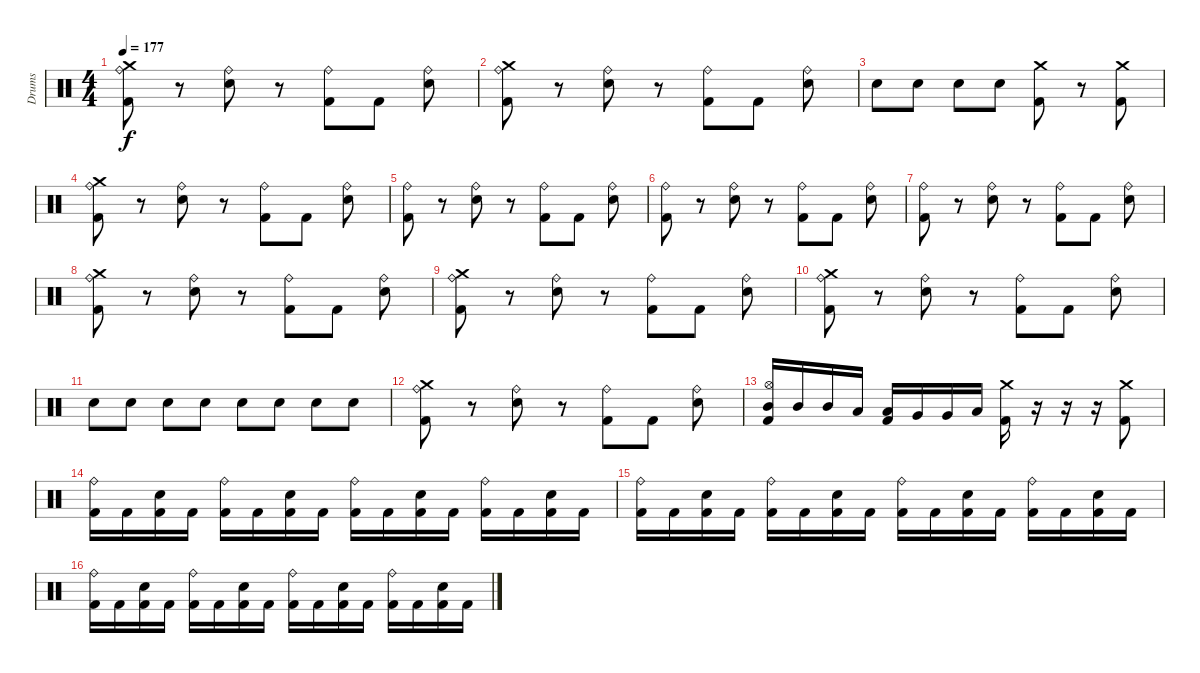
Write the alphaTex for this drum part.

\track ("Drums" "Drums") {instrument percussion}
\staff {score}
\articulation defaults
\ts (4 4)
\tempo 177
\clef neutral
\ks c
("Ride (bell)" "Crash medium (hit)" "Kick (hit) 2").8{dy f} r.8 ("Ride (bell)" "Snare (hit) 2").8 r.8 ("Ride (bell)" "Kick (hit) 2").8 "Kick (hit) 2".8 ("Ride (bell)" "Snare (hit) 2").8 |
("Ride (bell)" "Crash medium (hit)" "Kick (hit) 2").8 r.8 ("Ride (bell)" "Snare (hit) 2").8 r.8 ("Ride (bell)" "Kick (hit) 2").8 "Kick (hit) 2".8 ("Ride (bell)" "Snare (hit) 2").8 |
"Snare (hit) 2".8 "Snare (hit) 2".8 "Snare (hit) 2".8 "Snare (hit) 2".8 ("Crash medium (hit)" "Kick (hit) 2").8 r.8 ("Crash medium (hit)" "Kick (hit) 2").8 |
("Ride (bell)" "Crash medium (hit)" "Kick (hit) 2").8 r.8 ("Ride (bell)" "Snare (hit) 2").8 r.8 ("Ride (bell)" "Kick (hit) 2").8 "Kick (hit) 2".8 ("Ride (bell)" "Snare (hit) 2").8 |
("Ride (bell)" "Kick (hit) 2").8 r.8 ("Ride (bell)" "Snare (hit) 2").8 r.8 ("Ride (bell)" "Kick (hit) 2").8 "Kick (hit) 2".8 ("Ride (bell)" "Snare (hit) 2").8 |
("Ride (bell)" "Kick (hit) 2").8 r.8 ("Ride (bell)" "Snare (hit) 2").8 r.8 ("Ride (bell)" "Kick (hit) 2").8 "Kick (hit) 2".8 ("Ride (bell)" "Snare (hit) 2").8 |
("Ride (bell)" "Kick (hit) 2").8 r.8 ("Ride (bell)" "Snare (hit) 2").8 r.8 ("Ride (bell)" "Kick (hit) 2").8 "Kick (hit) 2".8 ("Ride (bell)" "Snare (hit) 2").8 |
("Ride (bell)" "Crash medium (hit)" "Kick (hit) 2").8 r.8 ("Ride (bell)" "Snare (hit) 2").8 r.8 ("Ride (bell)" "Kick (hit) 2").8 "Kick (hit) 2".8 ("Ride (bell)" "Snare (hit) 2").8 |
("Ride (bell)" "Crash medium (hit)" "Kick (hit) 2").8 r.8 ("Ride (bell)" "Snare (hit) 2").8 r.8 ("Ride (bell)" "Kick (hit) 2").8 "Kick (hit) 2".8 ("Ride (bell)" "Snare (hit) 2").8 |
("Ride (bell)" "Crash medium (hit)" "Kick (hit) 2").8 r.8 ("Ride (bell)" "Snare (hit) 2").8 r.8 ("Ride (bell)" "Kick (hit) 2").8 "Kick (hit) 2".8 ("Ride (bell)" "Snare (hit) 2").8 |
"Snare (hit) 2".8 "Snare (hit) 2".8 "Snare (hit) 2".8 "Snare (hit) 2".8 "Snare (hit) 2".8 "Snare (hit) 2".8 "Snare (hit) 2".8 "Snare (hit) 2".8 |
("Ride (bell)" "Crash medium (hit)" "Kick (hit) 2").8 r.8 ("Ride (bell)" "Snare (hit) 2").8 r.8 ("Ride (bell)" "Kick (hit) 2").8 "Kick (hit) 2".8 ("Ride (bell)" "Snare (hit) 2").8 |
("Hi-Hat (open)" "Mid Tom (hit)" "Kick (hit) 2").16 "Mid Tom (hit)".16 "Mid Tom (hit)".16 "Low Tom (hit)".16 ("Low Tom (hit)" "Kick (hit) 2").16 "Very Low Tom (hit)".16 "Very Low Tom (hit)".16 "Low Tom (hit)".16 ("Crash medium (hit)" "Kick (hit) 2").16 r.16 r.16 r.16 ("Crash medium (hit)" "Kick (hit) 2").8 |
("Ride (bell)" "Kick (hit) 2").16 "Kick (hit) 2".16 ("Snare (hit) 2" "Kick (hit) 2").16 "Kick (hit) 2".16 ("Ride (bell)" "Kick (hit) 2").16 "Kick (hit) 2".16 ("Snare (hit) 2" "Kick (hit) 2").16 "Kick (hit) 2".16 ("Ride (bell)" "Kick (hit) 2").16 "Kick (hit) 2".16 ("Snare (hit) 2" "Kick (hit) 2").16 "Kick (hit) 2".16 ("Ride (bell)" "Kick (hit) 2").16 "Kick (hit) 2".16 ("Snare (hit) 2" "Kick (hit) 2").16 "Kick (hit) 2".16 |
("Ride (bell)" "Kick (hit) 2").16 "Kick (hit) 2".16 ("Snare (hit) 2" "Kick (hit) 2").16 "Kick (hit) 2".16 ("Ride (bell)" "Kick (hit) 2").16 "Kick (hit) 2".16 ("Snare (hit) 2" "Kick (hit) 2").16 "Kick (hit) 2".16 ("Ride (bell)" "Kick (hit) 2").16 "Kick (hit) 2".16 ("Snare (hit) 2" "Kick (hit) 2").16 "Kick (hit) 2".16 ("Ride (bell)" "Kick (hit) 2").16 "Kick (hit) 2".16 ("Snare (hit) 2" "Kick (hit) 2").16 "Kick (hit) 2".16 |
("Ride (bell)" "Kick (hit) 2").16 "Kick (hit) 2".16 ("Snare (hit) 2" "Kick (hit) 2").16 "Kick (hit) 2".16 ("Ride (bell)" "Kick (hit) 2").16 "Kick (hit) 2".16 ("Snare (hit) 2" "Kick (hit) 2").16 "Kick (hit) 2".16 ("Ride (bell)" "Kick (hit) 2").16 "Kick (hit) 2".16 ("Snare (hit) 2" "Kick (hit) 2").16 "Kick (hit) 2".16 ("Ride (bell)" "Kick (hit) 2").16 "Kick (hit) 2".16 ("Snare (hit) 2" "Kick (hit) 2").16 "Kick (hit) 2".16
